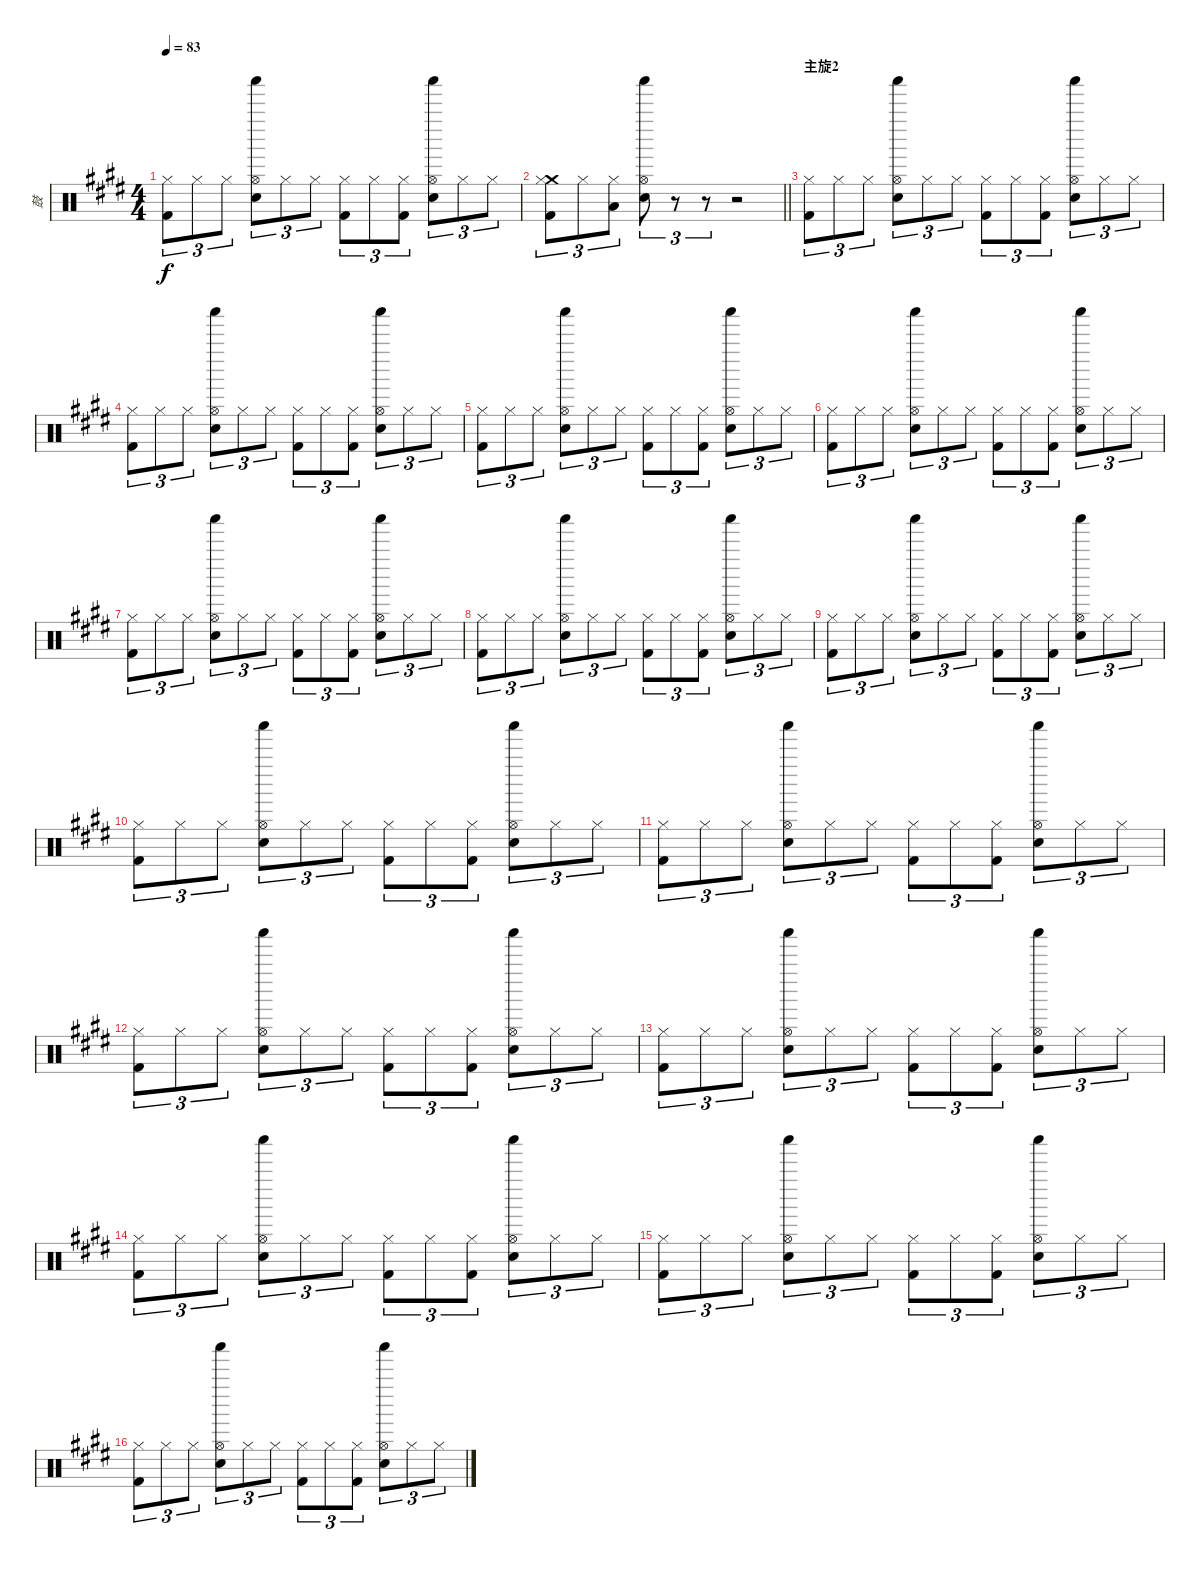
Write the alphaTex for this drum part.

\track ("鼓" "鼓") {instrument percussion}
\staff {score}
\articulation defaults
\ts (4 4)
\tempo 83
\clef neutral
\ks e
("Kick (hit) 2" "Hi-Hat (closed)").8{tu (3 2) dy f} "Hi-Hat (closed)".8{tu (3 2)} "Hi-Hat (closed)".8{tu (3 2)} ("Electric Snare (hit)" "Shaker (hit)" "Hi-Hat (open)").8{tu (3 2)} "Hi-Hat (closed)".8{tu (3 2)} "Hi-Hat (closed)".8{tu (3 2)} ("Kick (hit) 2" "Hi-Hat (closed)").8{tu (3 2)} "Hi-Hat (closed)".8{tu (3 2)} ("Kick (hit) 2" "Hi-Hat (closed)").8{tu (3 2)} ("Electric Snare (hit)" "Shaker (hit)" "Hi-Hat (open)").8{tu (3 2)} "Hi-Hat (closed)".8{tu (3 2)} "Hi-Hat (closed)".8{tu (3 2)} |
\barLineRight lightlight
("Crash medium (hit)" "Kick (hit) 2" "Hi-Hat (closed)").8{tu (3 2)} "Hi-Hat (closed)".8{tu (3 2)} ("Low Tom (hit)" "Hi-Hat (closed)").8{tu (3 2)} ("Electric Snare (hit)" "Shaker (hit)" "Hi-Hat (open)").8{tu (3 2)} r.8{tu (3 2)} r.8{tu (3 2)} r.2 |
\section ("" "主旋2")
("Kick (hit) 2" "Hi-Hat (closed)").8{tu (3 2)} "Hi-Hat (closed)".8{tu (3 2)} "Hi-Hat (closed)".8{tu (3 2)} ("Electric Snare (hit)" "Shaker (hit)" "Hi-Hat (open)").8{tu (3 2)} "Hi-Hat (closed)".8{tu (3 2)} "Hi-Hat (closed)".8{tu (3 2)} ("Kick (hit) 2" "Hi-Hat (closed)").8{tu (3 2)} "Hi-Hat (closed)".8{tu (3 2)} ("Kick (hit) 2" "Hi-Hat (closed)").8{tu (3 2)} ("Electric Snare (hit)" "Shaker (hit)" "Hi-Hat (open)").8{tu (3 2)} "Hi-Hat (closed)".8{tu (3 2)} "Hi-Hat (closed)".8{tu (3 2)} |
("Kick (hit) 2" "Hi-Hat (closed)").8{tu (3 2)} "Hi-Hat (closed)".8{tu (3 2)} "Hi-Hat (closed)".8{tu (3 2)} ("Electric Snare (hit)" "Shaker (hit)" "Hi-Hat (open)").8{tu (3 2)} "Hi-Hat (closed)".8{tu (3 2)} "Hi-Hat (closed)".8{tu (3 2)} ("Kick (hit) 2" "Hi-Hat (closed)").8{tu (3 2)} "Hi-Hat (closed)".8{tu (3 2)} ("Kick (hit) 2" "Hi-Hat (closed)").8{tu (3 2)} ("Electric Snare (hit)" "Shaker (hit)" "Hi-Hat (open)").8{tu (3 2)} "Hi-Hat (closed)".8{tu (3 2)} "Hi-Hat (closed)".8{tu (3 2)} |
("Kick (hit) 2" "Hi-Hat (closed)").8{tu (3 2)} "Hi-Hat (closed)".8{tu (3 2)} "Hi-Hat (closed)".8{tu (3 2)} ("Electric Snare (hit)" "Shaker (hit)" "Hi-Hat (open)").8{tu (3 2)} "Hi-Hat (closed)".8{tu (3 2)} "Hi-Hat (closed)".8{tu (3 2)} ("Kick (hit) 2" "Hi-Hat (closed)").8{tu (3 2)} "Hi-Hat (closed)".8{tu (3 2)} ("Kick (hit) 2" "Hi-Hat (closed)").8{tu (3 2)} ("Electric Snare (hit)" "Shaker (hit)" "Hi-Hat (open)").8{tu (3 2)} "Hi-Hat (closed)".8{tu (3 2)} "Hi-Hat (closed)".8{tu (3 2)} |
("Kick (hit) 2" "Hi-Hat (closed)").8{tu (3 2)} "Hi-Hat (closed)".8{tu (3 2)} "Hi-Hat (closed)".8{tu (3 2)} ("Electric Snare (hit)" "Shaker (hit)" "Hi-Hat (open)").8{tu (3 2)} "Hi-Hat (closed)".8{tu (3 2)} "Hi-Hat (closed)".8{tu (3 2)} ("Kick (hit) 2" "Hi-Hat (closed)").8{tu (3 2)} "Hi-Hat (closed)".8{tu (3 2)} ("Kick (hit) 2" "Hi-Hat (closed)").8{tu (3 2)} ("Electric Snare (hit)" "Shaker (hit)" "Hi-Hat (open)").8{tu (3 2)} "Hi-Hat (closed)".8{tu (3 2)} "Hi-Hat (closed)".8{tu (3 2)} |
("Kick (hit) 2" "Hi-Hat (closed)").8{tu (3 2)} "Hi-Hat (closed)".8{tu (3 2)} "Hi-Hat (closed)".8{tu (3 2)} ("Electric Snare (hit)" "Shaker (hit)" "Hi-Hat (open)").8{tu (3 2)} "Hi-Hat (closed)".8{tu (3 2)} "Hi-Hat (closed)".8{tu (3 2)} ("Kick (hit) 2" "Hi-Hat (closed)").8{tu (3 2)} "Hi-Hat (closed)".8{tu (3 2)} ("Kick (hit) 2" "Hi-Hat (closed)").8{tu (3 2)} ("Electric Snare (hit)" "Shaker (hit)" "Hi-Hat (open)").8{tu (3 2)} "Hi-Hat (closed)".8{tu (3 2)} "Hi-Hat (closed)".8{tu (3 2)} |
("Kick (hit) 2" "Hi-Hat (closed)").8{tu (3 2)} "Hi-Hat (closed)".8{tu (3 2)} "Hi-Hat (closed)".8{tu (3 2)} ("Electric Snare (hit)" "Shaker (hit)" "Hi-Hat (open)").8{tu (3 2)} "Hi-Hat (closed)".8{tu (3 2)} "Hi-Hat (closed)".8{tu (3 2)} ("Kick (hit) 2" "Hi-Hat (closed)").8{tu (3 2)} "Hi-Hat (closed)".8{tu (3 2)} ("Kick (hit) 2" "Hi-Hat (closed)").8{tu (3 2)} ("Electric Snare (hit)" "Shaker (hit)" "Hi-Hat (open)").8{tu (3 2)} "Hi-Hat (closed)".8{tu (3 2)} "Hi-Hat (closed)".8{tu (3 2)} |
("Kick (hit) 2" "Hi-Hat (closed)").8{tu (3 2)} "Hi-Hat (closed)".8{tu (3 2)} "Hi-Hat (closed)".8{tu (3 2)} ("Electric Snare (hit)" "Shaker (hit)" "Hi-Hat (open)").8{tu (3 2)} "Hi-Hat (closed)".8{tu (3 2)} "Hi-Hat (closed)".8{tu (3 2)} ("Kick (hit) 2" "Hi-Hat (closed)").8{tu (3 2)} "Hi-Hat (closed)".8{tu (3 2)} ("Kick (hit) 2" "Hi-Hat (closed)").8{tu (3 2)} ("Electric Snare (hit)" "Shaker (hit)" "Hi-Hat (open)").8{tu (3 2)} "Hi-Hat (closed)".8{tu (3 2)} "Hi-Hat (closed)".8{tu (3 2)} |
("Kick (hit) 2" "Hi-Hat (closed)").8{tu (3 2)} "Hi-Hat (closed)".8{tu (3 2)} "Hi-Hat (closed)".8{tu (3 2)} ("Electric Snare (hit)" "Shaker (hit)" "Hi-Hat (open)").8{tu (3 2)} "Hi-Hat (closed)".8{tu (3 2)} "Hi-Hat (closed)".8{tu (3 2)} ("Kick (hit) 2" "Hi-Hat (closed)").8{tu (3 2)} "Hi-Hat (closed)".8{tu (3 2)} ("Kick (hit) 2" "Hi-Hat (closed)").8{tu (3 2)} ("Electric Snare (hit)" "Shaker (hit)" "Hi-Hat (open)").8{tu (3 2)} "Hi-Hat (closed)".8{tu (3 2)} "Hi-Hat (closed)".8{tu (3 2)} |
("Kick (hit) 2" "Hi-Hat (closed)").8{tu (3 2)} "Hi-Hat (closed)".8{tu (3 2)} "Hi-Hat (closed)".8{tu (3 2)} ("Electric Snare (hit)" "Shaker (hit)" "Hi-Hat (open)").8{tu (3 2)} "Hi-Hat (closed)".8{tu (3 2)} "Hi-Hat (closed)".8{tu (3 2)} ("Kick (hit) 2" "Hi-Hat (closed)").8{tu (3 2)} "Hi-Hat (closed)".8{tu (3 2)} ("Kick (hit) 2" "Hi-Hat (closed)").8{tu (3 2)} ("Electric Snare (hit)" "Shaker (hit)" "Hi-Hat (open)").8{tu (3 2)} "Hi-Hat (closed)".8{tu (3 2)} "Hi-Hat (closed)".8{tu (3 2)} |
("Kick (hit) 2" "Hi-Hat (closed)").8{tu (3 2)} "Hi-Hat (closed)".8{tu (3 2)} "Hi-Hat (closed)".8{tu (3 2)} ("Electric Snare (hit)" "Shaker (hit)" "Hi-Hat (open)").8{tu (3 2)} "Hi-Hat (closed)".8{tu (3 2)} "Hi-Hat (closed)".8{tu (3 2)} ("Kick (hit) 2" "Hi-Hat (closed)").8{tu (3 2)} "Hi-Hat (closed)".8{tu (3 2)} ("Kick (hit) 2" "Hi-Hat (closed)").8{tu (3 2)} ("Electric Snare (hit)" "Shaker (hit)" "Hi-Hat (open)").8{tu (3 2)} "Hi-Hat (closed)".8{tu (3 2)} "Hi-Hat (closed)".8{tu (3 2)} |
("Kick (hit) 2" "Hi-Hat (closed)").8{tu (3 2)} "Hi-Hat (closed)".8{tu (3 2)} "Hi-Hat (closed)".8{tu (3 2)} ("Electric Snare (hit)" "Shaker (hit)" "Hi-Hat (open)").8{tu (3 2)} "Hi-Hat (closed)".8{tu (3 2)} "Hi-Hat (closed)".8{tu (3 2)} ("Kick (hit) 2" "Hi-Hat (closed)").8{tu (3 2)} "Hi-Hat (closed)".8{tu (3 2)} ("Kick (hit) 2" "Hi-Hat (closed)").8{tu (3 2)} ("Electric Snare (hit)" "Shaker (hit)" "Hi-Hat (open)").8{tu (3 2)} "Hi-Hat (closed)".8{tu (3 2)} "Hi-Hat (closed)".8{tu (3 2)} |
("Kick (hit) 2" "Hi-Hat (closed)").8{tu (3 2)} "Hi-Hat (closed)".8{tu (3 2)} "Hi-Hat (closed)".8{tu (3 2)} ("Electric Snare (hit)" "Shaker (hit)" "Hi-Hat (open)").8{tu (3 2)} "Hi-Hat (closed)".8{tu (3 2)} "Hi-Hat (closed)".8{tu (3 2)} ("Kick (hit) 2" "Hi-Hat (closed)").8{tu (3 2)} "Hi-Hat (closed)".8{tu (3 2)} ("Kick (hit) 2" "Hi-Hat (closed)").8{tu (3 2)} ("Electric Snare (hit)" "Shaker (hit)" "Hi-Hat (open)").8{tu (3 2)} "Hi-Hat (closed)".8{tu (3 2)} "Hi-Hat (closed)".8{tu (3 2)} |
("Kick (hit) 2" "Hi-Hat (closed)").8{tu (3 2)} "Hi-Hat (closed)".8{tu (3 2)} "Hi-Hat (closed)".8{tu (3 2)} ("Electric Snare (hit)" "Shaker (hit)" "Hi-Hat (open)").8{tu (3 2)} "Hi-Hat (closed)".8{tu (3 2)} "Hi-Hat (closed)".8{tu (3 2)} ("Kick (hit) 2" "Hi-Hat (closed)").8{tu (3 2)} "Hi-Hat (closed)".8{tu (3 2)} ("Kick (hit) 2" "Hi-Hat (closed)").8{tu (3 2)} ("Electric Snare (hit)" "Shaker (hit)" "Hi-Hat (open)").8{tu (3 2)} "Hi-Hat (closed)".8{tu (3 2)} "Hi-Hat (closed)".8{tu (3 2)} |
("Kick (hit) 2" "Hi-Hat (closed)").8{tu (3 2)} "Hi-Hat (closed)".8{tu (3 2)} "Hi-Hat (closed)".8{tu (3 2)} ("Electric Snare (hit)" "Shaker (hit)" "Hi-Hat (open)").8{tu (3 2)} "Hi-Hat (closed)".8{tu (3 2)} "Hi-Hat (closed)".8{tu (3 2)} ("Kick (hit) 2" "Hi-Hat (closed)").8{tu (3 2)} "Hi-Hat (closed)".8{tu (3 2)} ("Kick (hit) 2" "Hi-Hat (closed)").8{tu (3 2)} ("Electric Snare (hit)" "Shaker (hit)" "Hi-Hat (open)").8{tu (3 2)} "Hi-Hat (closed)".8{tu (3 2)} "Hi-Hat (closed)".8{tu (3 2)}
